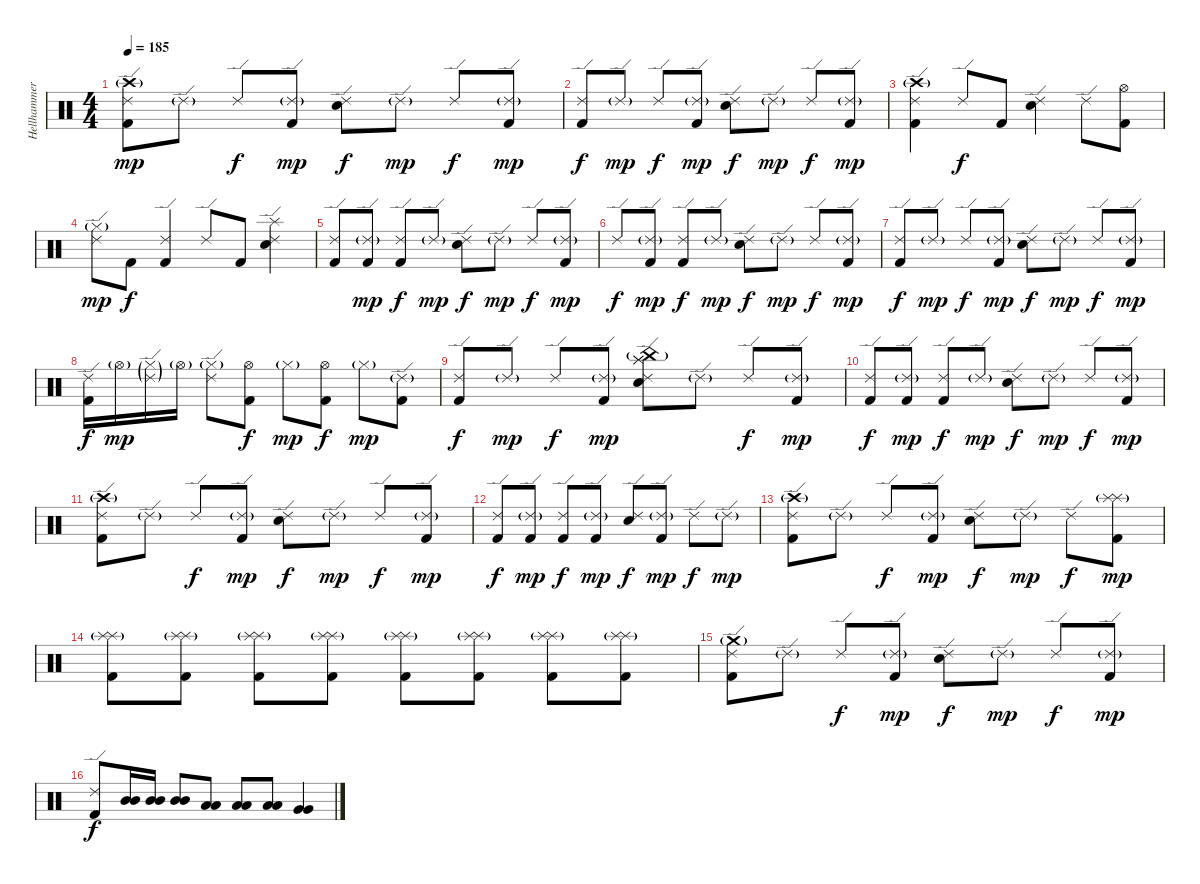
\track ("Hellhammer" "Hellhammer") {instrument percussion}
\staff {score}
\articulation defaults
\ts (4 4)
\tempo 185
\clef neutral
\ks c
("Kick (hit) 2" "Ride (edge) 2" "Crash high (hit)"{g}).8{dy mp} "Ride (edge) 2"{g}.8 "Ride (edge) 2".8{dy f} ("Kick (hit) 2" "Ride (edge) 2"{g}).8{dy mp} ("Electric Snare (hit)" "Ride (edge) 2").8{dy f} "Ride (edge) 2"{g}.8{dy mp} "Ride (edge) 2".8{dy f} ("Kick (hit) 2" "Ride (edge) 2"{g}).8{dy mp} |
("Kick (hit) 2" "Ride (edge) 2").8{dy f} "Ride (edge) 2"{g}.8{dy mp} "Ride (edge) 2".8{dy f} ("Kick (hit) 2" "Ride (edge) 2"{g}).8{dy mp} ("Electric Snare (hit)" "Ride (edge) 2").8{dy f} "Ride (edge) 2"{g}.8{dy mp} "Ride (edge) 2".8{dy f} ("Kick (hit) 2" "Ride (edge) 2"{g}).8{dy mp} |
("Kick (hit) 2" "Ride (edge) 2" "Crash high (hit)"{g}).4 "Ride (edge) 2".8{dy f} "Kick (hit) 2".8 ("Electric Snare (hit)" "Ride (edge) 2").4 "Ride (edge) 2".8 ("Kick (hit) 2" "Hi-Hat (open)").8 |
("Ride (edge) 2" "Hi-Hat (closed)"{g}).8{dy mp} "Kick (hit) 2".8{dy f} ("Kick (hit) 2" "Ride (edge) 2").4 "Ride (edge) 2".8 "Kick (hit) 2".8 ("Electric Snare (hit)" "Ride (edge) 2" "Splash (hit)").4 |
("Kick (hit) 2" "Ride (edge) 2").8 ("Kick (hit) 2" "Ride (edge) 2"{g}).8{dy mp} ("Kick (hit) 2" "Ride (edge) 2").8{dy f} "Ride (edge) 2"{g}.8{dy mp} ("Electric Snare (hit)" "Ride (edge) 2").8{dy f} "Ride (edge) 2"{g}.8{dy mp} "Ride (edge) 2".8{dy f} ("Kick (hit) 2" "Ride (edge) 2"{g}).8{dy mp} |
"Ride (edge) 2".8{dy f} ("Kick (hit) 2" "Ride (edge) 2"{g}).8{dy mp} ("Kick (hit) 2" "Ride (edge) 2").8{dy f} "Ride (edge) 2"{g}.8{dy mp} ("Electric Snare (hit)" "Ride (edge) 2").8{dy f} "Ride (edge) 2"{g}.8{dy mp} "Ride (edge) 2".8{dy f} ("Kick (hit) 2" "Ride (edge) 2"{g}).8{dy mp} |
("Kick (hit) 2" "Ride (edge) 2").8{dy f} "Ride (edge) 2"{g}.8{dy mp} "Ride (edge) 2".8{dy f} ("Kick (hit) 2" "Ride (edge) 2"{g}).8{dy mp} ("Electric Snare (hit)" "Ride (edge) 2").8{dy f} "Ride (edge) 2"{g}.8{dy mp} "Ride (edge) 2".8{dy f} ("Kick (hit) 2" "Ride (edge) 2"{g}).8{dy mp} |
("Kick (hit) 2" "Ride (edge) 2").16{dy f} "Hi-Hat (open)"{g}.16{dy mp} ("Hi-Hat (closed)"{g} "Ride (edge) 2"{g}).16 "Hi-Hat (open)"{g}.16 ("Hi-Hat (closed)"{g} "Ride (edge) 2").8 ("Kick (hit) 2" "Hi-Hat (open)").8{dy f} "Hi-Hat (closed)"{g}.8{dy mp} ("Kick (hit) 2" "Hi-Hat (open)").8{dy f} "Hi-Hat (closed)"{g}.8{dy mp} ("Kick (hit) 2" "Ride (edge) 2"{g}).8 |
("Kick (hit) 2" "Ride (edge) 2").8{dy f} "Ride (edge) 2"{g}.8{dy mp} "Ride (edge) 2".8{dy f} ("Kick (hit) 2" "Ride (edge) 2"{g}).8{dy mp} ("Electric Snare (hit)" "Ride (edge) 2" "Splash (hit)" "Splash (hit)" "China (hit)"{g}).8 "Ride (edge) 2"{g}.8 "Ride (edge) 2".8{dy f} ("Kick (hit) 2" "Ride (edge) 2"{g}).8{dy mp} |
("Kick (hit) 2" "Ride (edge) 2").8{dy f} ("Kick (hit) 2" "Ride (edge) 2"{g}).8{dy mp} ("Kick (hit) 2" "Ride (edge) 2").8{dy f} "Ride (edge) 2"{g}.8{dy mp} ("Electric Snare (hit)" "Ride (edge) 2").8{dy f} "Ride (edge) 2"{g}.8{dy mp} "Ride (edge) 2".8{dy f} ("Kick (hit) 2" "Ride (edge) 2"{g}).8{dy mp} |
("Kick (hit) 2" "Ride (edge) 2" "Crash high (hit)"{g}).8 "Ride (edge) 2"{g}.8 "Ride (edge) 2".8{dy f} ("Kick (hit) 2" "Ride (edge) 2"{g}).8{dy mp} ("Electric Snare (hit)" "Ride (edge) 2").8{dy f} "Ride (edge) 2"{g}.8{dy mp} "Ride (edge) 2".8{dy f} ("Kick (hit) 2" "Ride (edge) 2"{g}).8{dy mp} |
("Kick (hit) 2" "Ride (edge) 2").8{dy f} ("Kick (hit) 2" "Ride (edge) 2"{g}).8{dy mp} ("Kick (hit) 2" "Ride (edge) 2").8{dy f} ("Kick (hit) 2" "Ride (edge) 2"{g}).8{dy mp} ("Electric Snare (hit)" "Ride (edge) 2").8{dy f} ("Kick (hit) 2" "Ride (edge) 2"{g}).8{dy mp} "Ride (edge) 2".8{dy f} "Ride (edge) 2"{g}.8{dy mp} |
("Kick (hit) 2" "Ride (edge) 2" "Crash high (hit)"{g}).8 "Ride (edge) 2"{g}.8 "Ride (edge) 2".8{dy f} ("Kick (hit) 2" "Ride (edge) 2"{g}).8{dy mp} ("Electric Snare (hit)" "Ride (edge) 2").8{dy f} "Ride (edge) 2"{g}.8{dy mp} "Ride (edge) 2".8{dy f} ("Kick (hit) 2" "Splash (hit)"{g} "Splash (hit)"{g}).8{dy mp} |
("Kick (hit) 2" "Splash (hit)"{g} "Splash (hit)"{g}).8 ("Kick (hit) 2" "Splash (hit)"{g} "Splash (hit)"{g}).8 ("Kick (hit) 2" "Splash (hit)"{g} "Splash (hit)"{g}).8 ("Kick (hit) 2" "Splash (hit)"{g} "Splash (hit)"{g}).8 ("Kick (hit) 2" "Splash (hit)"{g} "Splash (hit)"{g}).8 ("Kick (hit) 2" "Splash (hit)"{g} "Splash (hit)"{g}).8 ("Kick (hit) 2" "Splash (hit)"{g} "Splash (hit)"{g}).8 ("Kick (hit) 2" "Splash (hit)"{g} "Splash (hit)"{g}).8 |
("Kick (hit) 2" "Ride (edge) 2" "Crash medium (hit)"{g}).8 "Ride (edge) 2"{g}.8 "Ride (edge) 2".8{dy f} ("Kick (hit) 2" "Ride (edge) 2"{g}).8{dy mp} ("Electric Snare (hit)" "Ride (edge) 2").8{dy f} "Ride (edge) 2"{g}.8{dy mp} "Ride (edge) 2".8{dy f} ("Kick (hit) 2" "Ride (edge) 2"{g}).8{dy mp} |
("Kick (hit) 2" "Ride (edge) 2").8{dy f} ("Mid Tom (hit)" "Mid Tom (hit)").16 ("Mid Tom (hit)" "Mid Tom (hit)").16 ("Mid Tom (hit)" "Mid Tom (hit)").8 ("Low Tom (hit)" "Low Tom (hit)").8 ("Low Tom (hit)" "Low Tom (hit)").8 ("Low Tom (hit)" "Low Tom (hit)").8 ("Very Low Tom (hit)" "Very Low Tom (hit)").4
